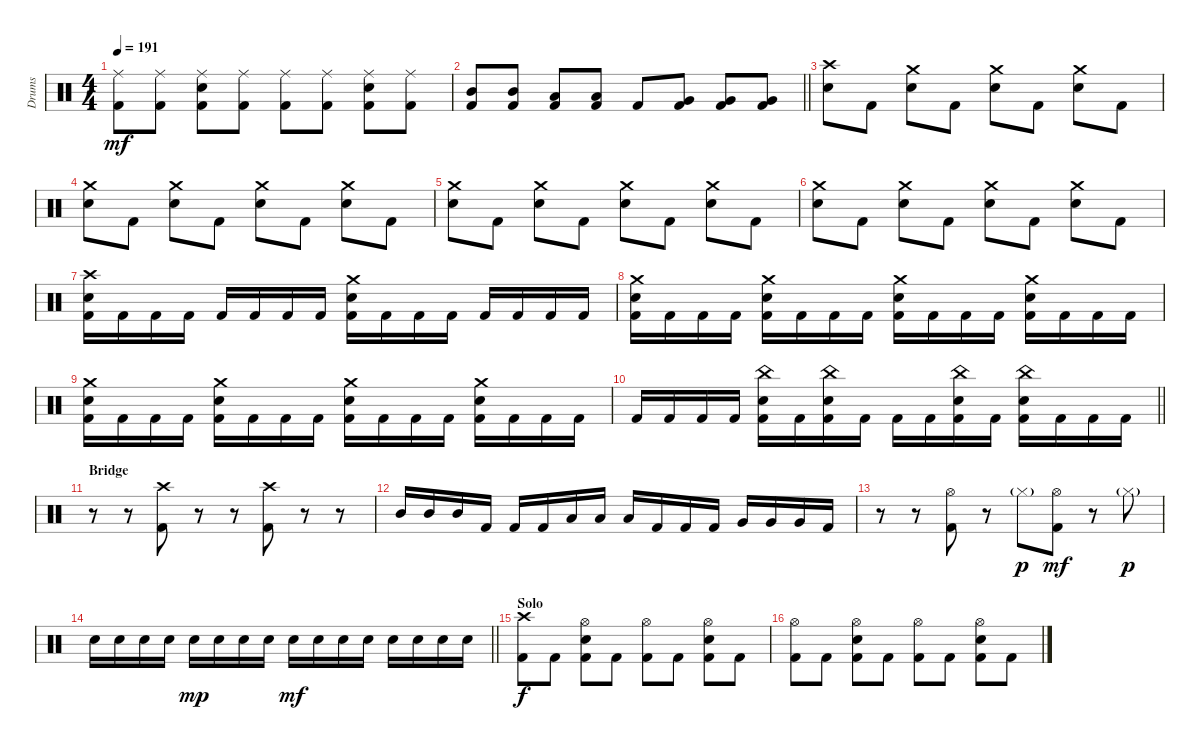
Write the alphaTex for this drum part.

\track ("Drums" "Drums") {instrument percussion}
\staff {score}
\articulation defaults
\ts (4 4)
\tempo 191
\clef neutral
\ks c
("Ride (middle)" "Kick (hit) 2").8{dy mf} ("Ride (middle)" "Kick (hit) 2").8 ("Ride (middle)" "Snare (hit) 2" "Kick (hit) 2").8 ("Ride (middle)" "Kick (hit) 2").8 ("Ride (middle)" "Kick (hit) 2").8 ("Ride (middle)" "Kick (hit) 2").8 ("Ride (middle)" "Snare (hit) 2" "Kick (hit) 2").8 ("Ride (middle)" "Kick (hit) 2").8 |
\barLineRight lightlight
("Mid Tom (hit)" "Kick (hit) 2").8 ("Mid Tom (hit)" "Kick (hit) 2").8 ("Low Tom (hit)" "Kick (hit) 2").8 ("Low Tom (hit)" "Kick (hit) 2").8 "Kick (hit) 2".8 ("Very Low Tom (hit)" "Kick (hit) 2").8 ("Very Low Tom (hit)" "Kick (hit) 2").8 ("Very Low Tom (hit)" "Kick (hit) 2").8 |
\section ("" "")
("Crash high (hit)" "Snare (hit) 2").8 "Kick (hit) 2".8 ("Crash medium (hit)" "Snare (hit) 2").8 "Kick (hit) 2".8 ("Crash medium (hit)" "Snare (hit) 2").8 "Kick (hit) 2".8 ("Crash medium (hit)" "Snare (hit) 2").8 "Kick (hit) 2".8 |
("Crash medium (hit)" "Snare (hit) 2").8 "Kick (hit) 2".8 ("Crash medium (hit)" "Snare (hit) 2").8 "Kick (hit) 2".8 ("Crash medium (hit)" "Snare (hit) 2").8 "Kick (hit) 2".8 ("Crash medium (hit)" "Snare (hit) 2").8 "Kick (hit) 2".8 |
("Crash medium (hit)" "Snare (hit) 2").8 "Kick (hit) 2".8 ("Crash medium (hit)" "Snare (hit) 2").8 "Kick (hit) 2".8 ("Crash medium (hit)" "Snare (hit) 2").8 "Kick (hit) 2".8 ("Crash medium (hit)" "Snare (hit) 2").8 "Kick (hit) 2".8 |
("Crash medium (hit)" "Snare (hit) 2").8 "Kick (hit) 2".8 ("Crash medium (hit)" "Snare (hit) 2").8 "Kick (hit) 2".8 ("Crash medium (hit)" "Snare (hit) 2").8 "Kick (hit) 2".8 ("Crash medium (hit)" "Snare (hit) 2").8 "Kick (hit) 2".8 |
("Crash high (hit)" "Snare (hit) 2" "Kick (hit) 2").16 "Kick (hit) 2".16 "Kick (hit) 2".16 "Kick (hit) 2".16 "Kick (hit) 2".16 "Kick (hit) 2".16 "Kick (hit) 2".16 "Kick (hit) 2".16 ("Crash medium (hit)" "Snare (hit) 2" "Kick (hit) 2").16 "Kick (hit) 2".16 "Kick (hit) 2".16 "Kick (hit) 2".16 "Kick (hit) 2".16 "Kick (hit) 2".16 "Kick (hit) 2".16 "Kick (hit) 2".16 |
("Crash medium (hit)" "Snare (hit) 2" "Kick (hit) 2").16 "Kick (hit) 2".16 "Kick (hit) 2".16 "Kick (hit) 2".16 ("Crash medium (hit)" "Snare (hit) 2" "Kick (hit) 2").16 "Kick (hit) 2".16 "Kick (hit) 2".16 "Kick (hit) 2".16 ("Crash medium (hit)" "Snare (hit) 2" "Kick (hit) 2").16 "Kick (hit) 2".16 "Kick (hit) 2".16 "Kick (hit) 2".16 ("Crash medium (hit)" "Snare (hit) 2" "Kick (hit) 2").16 "Kick (hit) 2".16 "Kick (hit) 2".16 "Kick (hit) 2".16 |
("Crash medium (hit)" "Snare (hit) 2" "Kick (hit) 2").16 "Kick (hit) 2".16 "Kick (hit) 2".16 "Kick (hit) 2".16 ("Crash medium (hit)" "Snare (hit) 2" "Kick (hit) 2").16 "Kick (hit) 2".16 "Kick (hit) 2".16 "Kick (hit) 2".16 ("Crash medium (hit)" "Snare (hit) 2" "Kick (hit) 2").16 "Kick (hit) 2".16 "Kick (hit) 2".16 "Kick (hit) 2".16 ("Crash medium (hit)" "Snare (hit) 2" "Kick (hit) 2").16 "Kick (hit) 2".16 "Kick (hit) 2".16 "Kick (hit) 2".16 |
\barLineRight lightlight "Kick (hit) 2".16 "Kick (hit) 2".16 "Kick (hit) 2".16 "Kick (hit) 2".16
("China (hit)" "Snare (hit) 2" "Kick (hit) 2").16 "Kick (hit) 2".16 ("China (hit)" "Snare (hit) 2" "Kick (hit) 2").16 "Kick (hit) 2".16 "Kick (hit) 2".16 "Kick (hit) 2".16 ("China (hit)" "Snare (hit) 2" "Kick (hit) 2").16 "Kick (hit) 2".16 ("China (hit)" "Snare (hit) 2" "Kick (hit) 2").16 "Kick (hit) 2".16 "Kick (hit) 2".16 "Kick (hit) 2".16 |
\section ("" "Bridge")
r.8 r.8 ("Crash high (hit)" "Kick (hit) 2").8 r.8 r.8 ("Crash high (hit)" "Kick (hit) 2").8 r.8 r.8 |
"Mid Tom (hit)".16 "Mid Tom (hit)".16 "Mid Tom (hit)".16 "Kick (hit) 2".16 "Kick (hit) 2".16 "Kick (hit) 2".16 "Low Tom (hit)".16 "Low Tom (hit)".16 "Low Tom (hit)".16 "Kick (hit) 2".16 "Kick (hit) 2".16 "Kick (hit) 2".16 "Very Low Tom (hit)".16 "Very Low Tom (hit)".16 "Very Low Tom (hit)".16 "Kick (hit) 2".16 |
r.8 r.8 ("Hi-Hat (open)" "Kick (hit) 2").8 r.8 "Hi-Hat (closed)"{g}.8{dy p} ("Hi-Hat (open)" "Kick (hit) 2").8{dy mf} r.8 "Hi-Hat (closed)"{g}.8{dy p} |
\barLineRight lightlight "Snare (hit) 2".16 "Snare (hit) 2".16 "Snare (hit) 2".16 "Snare (hit) 2".16 "Snare (hit) 2".16{dy mp} "Snare (hit) 2".16 "Snare (hit) 2".16 "Snare (hit) 2".16 "Snare (hit) 2".16{dy mf} "Snare (hit) 2".16 "Snare (hit) 2".16 "Snare (hit) 2".16 "Snare (hit) 2".16 "Snare (hit) 2".16 "Snare (hit) 2".16 "Snare (hit) 2".16
|
\section ("" "Solo")
("Crash high (hit)" "Kick (hit) 2").8{dy f} "Kick (hit) 2".8 ("Hi-Hat (open)" "Snare (hit) 2" "Kick (hit) 2").8 "Kick (hit) 2".8 ("Hi-Hat (open)" "Kick (hit) 2").8 "Kick (hit) 2".8 ("Hi-Hat (open)" "Snare (hit) 2" "Kick (hit) 2").8 "Kick (hit) 2".8 |
("Hi-Hat (open)" "Kick (hit) 2").8 "Kick (hit) 2".8 ("Hi-Hat (open)" "Snare (hit) 2" "Kick (hit) 2").8 "Kick (hit) 2".8 ("Hi-Hat (open)" "Kick (hit) 2").8 "Kick (hit) 2".8 ("Hi-Hat (open)" "Snare (hit) 2" "Kick (hit) 2").8 "Kick (hit) 2".8
